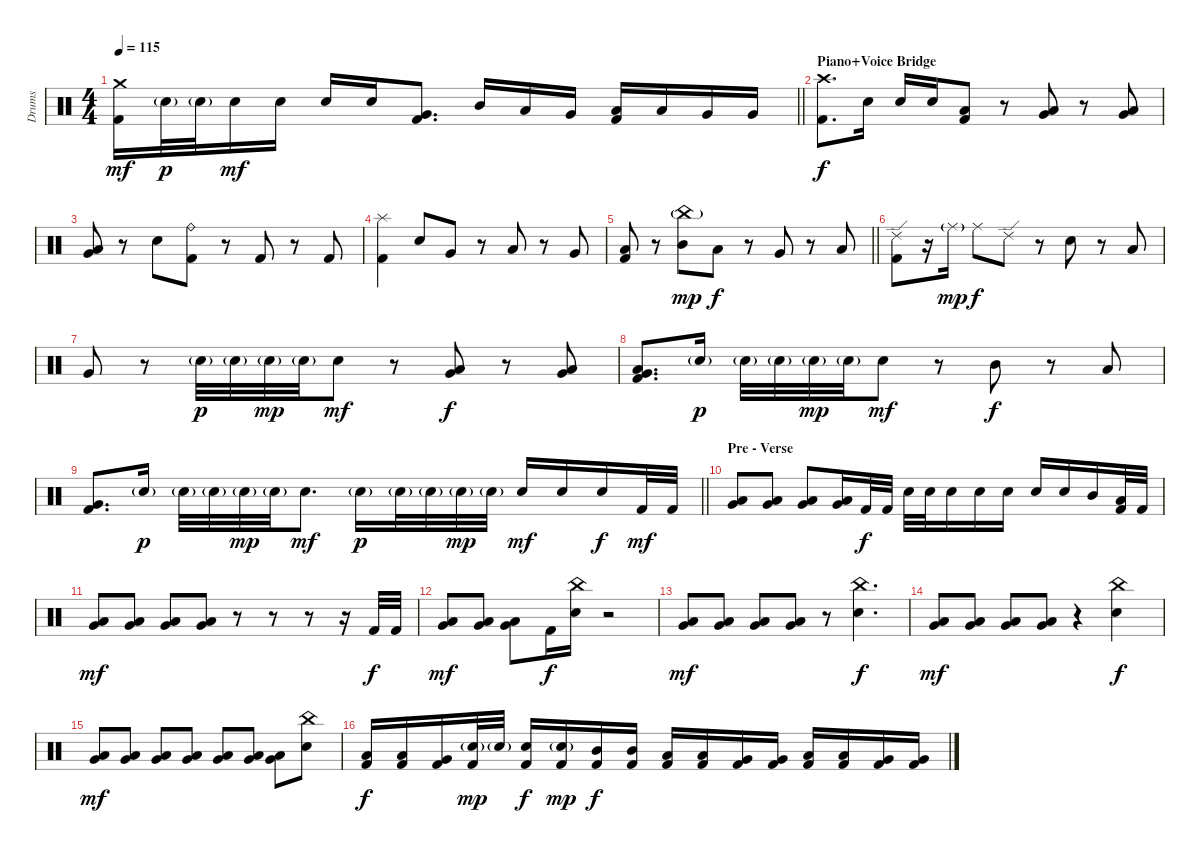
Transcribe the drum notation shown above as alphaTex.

\track ("Drums" "Drums") {instrument percussion}
\staff {score}
\articulation defaults
\ts (4 4)
\tempo 115
\clef neutral
\barLineRight lightlight
\ks c
("Crash medium (hit)" "Kick (hit) 2").16{dy mf} "Electric Snare (hit)"{g}.32{dy p} "Electric Snare (hit)"{g}.32 "Electric Snare (hit)".16{dy mf} "Electric Snare (hit)".16 "Electric Snare (hit)".16 "Electric Snare (hit)".16 ("Very Low Tom (hit)" "Kick (hit) 2").8{d} "Mid Tom (hit)".16 "Low Tom (hit)".16 "Very Low Tom (hit)".16 ("Low Tom (hit)" "Kick (hit) 2").16 "Low Tom (hit)".16 "Very Low Tom (hit)".16 "Very Low Tom (hit)".16 |
\section ("" "Piano+Voice Bridge")
("Crash high (hit)" "Kick (hit) 2").8{d dy f} "Electric Snare (hit)".16 "Electric Snare (hit)".16 "Electric Snare (hit)".16 ("Low Tom (hit)" "Kick (hit) 2").8 r.8 ("Low Tom (hit)" "Very Low Tom (hit)").8 r.8 ("Very Low Tom (hit)" "Low Floor Tom (hit)").8 |
("Very Low Tom (hit)" "Low Floor Tom (hit)").8 r.8 "Electric Snare (hit)".8 ("Ride (bell)" "Kick (hit) 2").8 r.8 "Kick (hit) 2".8 r.8 "Kick (hit) 2".8 |
("Splash (hit)" "Kick (hit) 2").4 "Electric Snare (hit)".8 "Very Low Tom (hit)".8 r.8 "Low Tom (hit)".8 r.8 "Very Low Tom (hit)".8 |
\barLineRight lightlight
("Low Floor Tom (hit)" "Kick (hit) 2").8 r.8 ("China (hit)"{g} "Mid Tom (hit)").8{dy mp} "Low Tom (hit)".8{dy f} r.8 "Very Low Tom (hit)".8 r.8 "Low Floor Tom (hit)".8 |
("Ride (edge) 2" "Kick (hit) 2").8 r.16 "Ride (middle)"{g}.16{dy mp} "Ride (middle)".8{dy f} "Ride (edge) 2".8 r.8 "Electric Snare (hit)".8 r.8 "Low Tom (hit)".8 |
"Very Low Tom (hit)".8 r.8 "Electric Snare (hit)"{g}.32{dy p} "Electric Snare (hit)"{g}.32 "Electric Snare (hit)"{g}.32{dy mp} "Electric Snare (hit)"{g}.32 "Electric Snare (hit)".8{dy mf} r.8 ("Low Tom (hit)" "Very Low Tom (hit)").8{dy f} r.8 ("Very Low Tom (hit)" "Low Floor Tom (hit)").8 |
("Very Low Tom (hit)" "Low Floor Tom (hit)" "Kick (hit) 2").8{d} "Electric Snare (hit)"{g}.16{dy p} "Electric Snare (hit)"{g}.32 "Electric Snare (hit)"{g}.32 "Electric Snare (hit)"{g}.32{dy mp} "Electric Snare (hit)"{g}.32 "Electric Snare (hit)".8{dy mf} r.8 "Mid Tom (hit)".8{dy f} r.8 "Low Tom (hit)".8 |
\barLineRight lightlight
("Very Low Tom (hit)" "Kick (hit) 2").8{d} "Electric Snare (hit)"{g}.16{dy p} "Electric Snare (hit)"{g}.32 "Electric Snare (hit)"{g}.32 "Electric Snare (hit)"{g}.32{dy mp} "Electric Snare (hit)"{g}.32 "Electric Snare (hit)".8{d dy mf} "Electric Snare (hit)"{g}.16{dy p} "Electric Snare (hit)"{g}.32 "Electric Snare (hit)"{g}.32 "Electric Snare (hit)"{g}.32{dy mp} "Electric Snare (hit)"{g}.32 "Electric Snare (hit)".16{dy mf} "Electric Snare (hit)".16 "Electric Snare (hit)".16{dy f} "Kick (hit) 2".32{dy mf} "Kick (hit) 2".32 |
\section ("" "Pre - Verse")
("Low Tom (hit)" "Very Low Tom (hit)").8 ("Low Tom (hit)" "Very Low Tom (hit)").8 ("Low Tom (hit)" "Very Low Tom (hit)").8 ("Low Tom (hit)" "Very Low Tom (hit)").16 "Kick (hit) 2".32{dy f} "Kick (hit) 2".32 "Electric Snare (hit)".32 "Electric Snare (hit)".32 "Electric Snare (hit)".16 "Electric Snare (hit)".16 "Electric Snare (hit)".16 "Electric Snare (hit)".16 "Electric Snare (hit)".16 "Mid Tom (hit)".16 ("Low Tom (hit)" "Kick (hit) 2").32 "Kick (hit) 2".32 |
("Low Tom (hit)" "Very Low Tom (hit)").8{dy mf} ("Low Tom (hit)" "Very Low Tom (hit)").8 ("Low Tom (hit)" "Very Low Tom (hit)").8 ("Low Tom (hit)" "Very Low Tom (hit)").8 r.8 r.8 r.8 r.16 "Kick (hit) 2".32{dy f} "Kick (hit) 2".32 |
("Low Tom (hit)" "Very Low Tom (hit)").8{dy mf} ("Low Tom (hit)" "Very Low Tom (hit)").8 ("Low Tom (hit)" "Very Low Tom (hit)").8 "Kick (hit) 2".16{dy f} ("China (hit)" "Electric Snare (hit)").16 r.2 |
("Low Tom (hit)" "Very Low Tom (hit)").8{dy mf} ("Low Tom (hit)" "Very Low Tom (hit)").8 ("Low Tom (hit)" "Very Low Tom (hit)").8 ("Low Tom (hit)" "Very Low Tom (hit)").8 r.8 ("China (hit)" "Electric Snare (hit)").4{d dy f} |
("Low Tom (hit)" "Very Low Tom (hit)").8{dy mf} ("Low Tom (hit)" "Very Low Tom (hit)").8 ("Low Tom (hit)" "Very Low Tom (hit)").8 ("Low Tom (hit)" "Very Low Tom (hit)").8 r.4 ("China (hit)" "Electric Snare (hit)").4{dy f} |
("Low Tom (hit)" "Very Low Tom (hit)").8{dy mf} ("Low Tom (hit)" "Very Low Tom (hit)").8 ("Low Tom (hit)" "Very Low Tom (hit)").8 ("Low Tom (hit)" "Very Low Tom (hit)").8 ("Low Tom (hit)" "Very Low Tom (hit)").8 ("Low Tom (hit)" "Very Low Tom (hit)").8 ("Low Tom (hit)" "Very Low Tom (hit)").8 ("China (hit)" "Electric Snare (hit)").8 |
("Low Tom (hit)" "Kick (hit) 2").16{dy f} ("Low Tom (hit)" "Kick (hit) 2").16 ("Very Low Tom (hit)" "Kick (hit) 2").16 ("Electric Snare (hit)"{g} "Kick (hit) 2").32{dy mp} "Electric Snare (hit)"{g}.32 ("Electric Snare (hit)" "Kick (hit) 2").16{dy f} ("Electric Snare (hit)"{g} "Kick (hit) 2").16{dy mp} ("Mid Tom (hit)" "Kick (hit) 2").16{dy f} ("Mid Tom (hit)" "Kick (hit) 2").16 ("Low Tom (hit)" "Kick (hit) 2").16 ("Low Tom (hit)" "Kick (hit) 2").16 ("Very Low Tom (hit)" "Kick (hit) 2").16 ("Very Low Tom (hit)" "Kick (hit) 2").16 ("Low Tom (hit)" "Kick (hit) 2").16 ("Low Tom (hit)" "Kick (hit) 2").16 ("Very Low Tom (hit)" "Kick (hit) 2").16 ("Very Low Tom (hit)" "Kick (hit) 2").16
